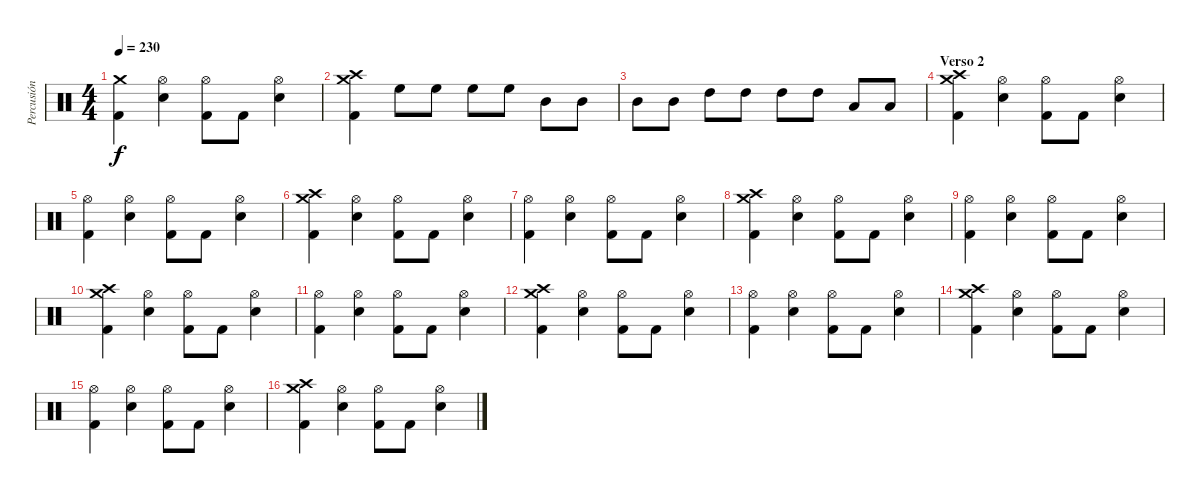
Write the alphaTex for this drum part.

\track ("Percusión" "Percusión") {instrument percussion}
\staff {score}
\articulation defaults
\ts (4 4)
\tempo 230
\clef neutral
\ks c
("Crash medium (hit)" "Kick (hit) 2").4{dy f} ("Hi-Hat (open)" "Snare (hit) 2").4 ("Hi-Hat (open)" "Kick (hit) 2").8 "Kick (hit) 2".8 ("Hi-Hat (open)" "Snare (hit) 2").4 |
("Crash medium (hit)" "Crash high (hit)" "Kick (hit) 2").4 "High Floor Tom (hit)".8 "High Floor Tom (hit)".8 "High Floor Tom (hit)".8 "High Floor Tom (hit)".8 "Mid Tom (hit)".8 "Mid Tom (hit)".8 |
"Mid Tom (hit)".8 "Mid Tom (hit)".8 "High Tom (hit)".8 "High Tom (hit)".8 "High Tom (hit)".8 "High Tom (hit)".8 "Low Tom (hit)".8 "Low Tom (hit)".8 |
\section ("" "Verso 2")
("Crash medium (hit)" "Crash high (hit)" "Kick (hit) 2").4 ("Hi-Hat (open)" "Snare (hit) 2").4 ("Hi-Hat (open)" "Kick (hit) 2").8 "Kick (hit) 2".8 ("Hi-Hat (open)" "Snare (hit) 2").4 |
("Hi-Hat (open)" "Kick (hit) 2").4 ("Hi-Hat (open)" "Snare (hit) 2").4 ("Hi-Hat (open)" "Kick (hit) 2").8 "Kick (hit) 2".8 ("Hi-Hat (open)" "Snare (hit) 2").4 |
("Crash medium (hit)" "Crash high (hit)" "Kick (hit) 2").4 ("Hi-Hat (open)" "Snare (hit) 2").4 ("Hi-Hat (open)" "Kick (hit) 2").8 "Kick (hit) 2".8 ("Hi-Hat (open)" "Snare (hit) 2").4 |
("Hi-Hat (open)" "Kick (hit) 2").4 ("Hi-Hat (open)" "Snare (hit) 2").4 ("Hi-Hat (open)" "Kick (hit) 2").8 "Kick (hit) 2".8 ("Hi-Hat (open)" "Snare (hit) 2").4 |
("Crash medium (hit)" "Crash high (hit)" "Kick (hit) 2").4 ("Hi-Hat (open)" "Snare (hit) 2").4 ("Hi-Hat (open)" "Kick (hit) 2").8 "Kick (hit) 2".8 ("Hi-Hat (open)" "Snare (hit) 2").4 |
("Hi-Hat (open)" "Kick (hit) 2").4 ("Hi-Hat (open)" "Snare (hit) 2").4 ("Hi-Hat (open)" "Kick (hit) 2").8 "Kick (hit) 2".8 ("Hi-Hat (open)" "Snare (hit) 2").4 |
("Crash medium (hit)" "Crash high (hit)" "Kick (hit) 2").4 ("Hi-Hat (open)" "Snare (hit) 2").4 ("Hi-Hat (open)" "Kick (hit) 2").8 "Kick (hit) 2".8 ("Hi-Hat (open)" "Snare (hit) 2").4 |
("Hi-Hat (open)" "Kick (hit) 2").4 ("Hi-Hat (open)" "Snare (hit) 2").4 ("Hi-Hat (open)" "Kick (hit) 2").8 "Kick (hit) 2".8 ("Hi-Hat (open)" "Snare (hit) 2").4 |
("Crash medium (hit)" "Crash high (hit)" "Kick (hit) 2").4 ("Hi-Hat (open)" "Snare (hit) 2").4 ("Hi-Hat (open)" "Kick (hit) 2").8 "Kick (hit) 2".8 ("Hi-Hat (open)" "Snare (hit) 2").4 |
("Hi-Hat (open)" "Kick (hit) 2").4 ("Hi-Hat (open)" "Snare (hit) 2").4 ("Hi-Hat (open)" "Kick (hit) 2").8 "Kick (hit) 2".8 ("Hi-Hat (open)" "Snare (hit) 2").4 |
("Crash medium (hit)" "Crash high (hit)" "Kick (hit) 2").4 ("Hi-Hat (open)" "Snare (hit) 2").4 ("Hi-Hat (open)" "Kick (hit) 2").8 "Kick (hit) 2".8 ("Hi-Hat (open)" "Snare (hit) 2").4 |
("Hi-Hat (open)" "Kick (hit) 2").4 ("Hi-Hat (open)" "Snare (hit) 2").4 ("Hi-Hat (open)" "Kick (hit) 2").8 "Kick (hit) 2".8 ("Hi-Hat (open)" "Snare (hit) 2").4 |
("Crash medium (hit)" "Crash high (hit)" "Kick (hit) 2").4 ("Hi-Hat (open)" "Snare (hit) 2").4 ("Hi-Hat (open)" "Kick (hit) 2").8 "Kick (hit) 2".8 ("Hi-Hat (open)" "Snare (hit) 2").4
